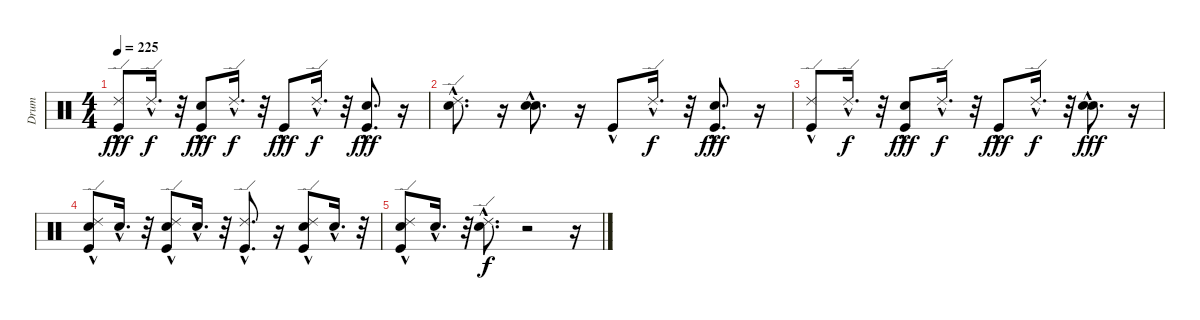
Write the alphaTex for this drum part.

\track ("Drum" "Drum") {instrument percussion}
\staff {score}
\articulation defaults
\ts (4 4)
\tempo 225
\clef neutral
\ks c
("Kick (hit)"{hac} "Ride (edge) 2"{hac}).8{dy fff} "Ride (edge) 2"{hac}.16{d dy f} r.32 ("Kick (hit)"{hac} "Electric Snare (hit)"{hac}).8{dy fff} "Ride (edge) 2"{hac}.16{d dy f} r.32 "Kick (hit)"{hac}.8{dy fff} "Ride (edge) 2"{hac}.16{d dy f} r.32 ("Kick (hit)"{hac} "Electric Snare (hit)"{hac}).8{d dy fff} r.16 |
("Snare (hit) 2"{hac} "Ride (edge) 2"{hac}).8{d} r.16 ("Snare (hit) 2"{hac} "Electric Snare (hit)"{hac}).8{d} r.16 "Kick (hit)"{hac}.8 "Ride (edge) 2"{hac}.16{d dy f} r.32 ("Kick (hit)"{hac} "Electric Snare (hit)"{hac}).8{d dy fff} r.16 |
("Kick (hit)"{hac} "Ride (edge) 2"{hac}).8 "Ride (edge) 2"{hac}.16{d dy f} r.32 ("Kick (hit)"{hac} "Electric Snare (hit)"{hac}).8{dy fff} "Ride (edge) 2"{hac}.16{d dy f} r.32 "Kick (hit)"{hac}.8{dy fff} "Ride (edge) 2"{hac}.16{d dy f} r.32 ("Snare (hit) 2"{hac} "Electric Snare (hit)"{hac}).8{d dy fff} r.16 |
("Kick (hit)"{hac} "Electric Snare (hit)"{hac} "Ride (edge) 2"{hac}).8 "Electric Snare (hit)"{hac}.16{d} r.32 ("Kick (hit)"{hac} "Electric Snare (hit)"{hac} "Ride (edge) 2"{hac}).8 "Electric Snare (hit)"{hac}.16{d} r.32 ("Kick (hit)"{hac} "Ride (edge) 2"{hac}).8{d} r.16 ("Kick (hit)"{hac} "Electric Snare (hit)"{hac} "Ride (edge) 2"{hac}).8 "Electric Snare (hit)"{hac}.16{d} r.32 |
("Kick (hit)"{hac} "Electric Snare (hit)"{hac} "Ride (edge) 2"{hac}).8 "Electric Snare (hit)"{hac}.16{d} r.32 ("Snare (hit) 2"{hac} "Ride (edge) 2"{hac}).8{d dy f} r.2 r.16
